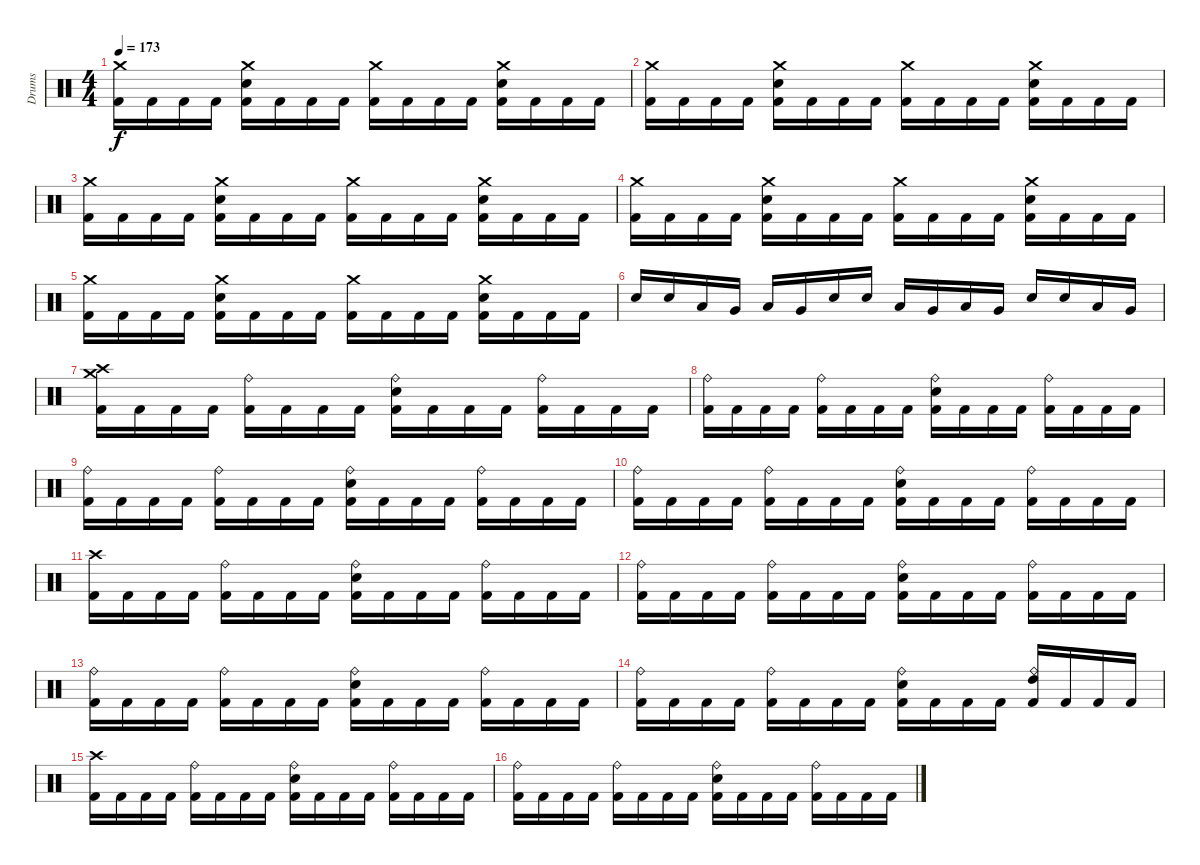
\track ("Drums" "Drums") {instrument percussion}
\staff {score}
\articulation defaults
\ts (4 4)
\tempo 173
\clef neutral
\ks c
("Crash medium (hit)" "Kick (hit) 2").16{dy f} "Kick (hit) 2".16 "Kick (hit) 2".16 "Kick (hit) 2".16 ("Crash medium (hit)" "Snare (hit) 2" "Kick (hit) 2").16 "Kick (hit) 2".16 "Kick (hit) 2".16 "Kick (hit) 2".16 ("Crash medium (hit)" "Kick (hit) 2").16 "Kick (hit) 2".16 "Kick (hit) 2".16 "Kick (hit) 2".16 ("Crash medium (hit)" "Snare (hit) 2" "Kick (hit) 2").16 "Kick (hit) 2".16 "Kick (hit) 2".16 "Kick (hit) 2".16 |
("Crash medium (hit)" "Kick (hit) 2").16 "Kick (hit) 2".16 "Kick (hit) 2".16 "Kick (hit) 2".16 ("Crash medium (hit)" "Snare (hit) 2" "Kick (hit) 2").16 "Kick (hit) 2".16 "Kick (hit) 2".16 "Kick (hit) 2".16 ("Crash medium (hit)" "Kick (hit) 2").16 "Kick (hit) 2".16 "Kick (hit) 2".16 "Kick (hit) 2".16 ("Crash medium (hit)" "Snare (hit) 2" "Kick (hit) 2").16 "Kick (hit) 2".16 "Kick (hit) 2".16 "Kick (hit) 2".16 |
("Crash medium (hit)" "Kick (hit) 2").16 "Kick (hit) 2".16 "Kick (hit) 2".16 "Kick (hit) 2".16 ("Crash medium (hit)" "Snare (hit) 2" "Kick (hit) 2").16 "Kick (hit) 2".16 "Kick (hit) 2".16 "Kick (hit) 2".16 ("Crash medium (hit)" "Kick (hit) 2").16 "Kick (hit) 2".16 "Kick (hit) 2".16 "Kick (hit) 2".16 ("Crash medium (hit)" "Snare (hit) 2" "Kick (hit) 2").16 "Kick (hit) 2".16 "Kick (hit) 2".16 "Kick (hit) 2".16 |
("Crash medium (hit)" "Kick (hit) 2").16 "Kick (hit) 2".16 "Kick (hit) 2".16 "Kick (hit) 2".16 ("Crash medium (hit)" "Snare (hit) 2" "Kick (hit) 2").16 "Kick (hit) 2".16 "Kick (hit) 2".16 "Kick (hit) 2".16 ("Crash medium (hit)" "Kick (hit) 2").16 "Kick (hit) 2".16 "Kick (hit) 2".16 "Kick (hit) 2".16 ("Crash medium (hit)" "Snare (hit) 2" "Kick (hit) 2").16 "Kick (hit) 2".16 "Kick (hit) 2".16 "Kick (hit) 2".16 |
("Crash medium (hit)" "Kick (hit) 2").16 "Kick (hit) 2".16 "Kick (hit) 2".16 "Kick (hit) 2".16 ("Crash medium (hit)" "Snare (hit) 2" "Kick (hit) 2").16 "Kick (hit) 2".16 "Kick (hit) 2".16 "Kick (hit) 2".16 ("Crash medium (hit)" "Kick (hit) 2").16 "Kick (hit) 2".16 "Kick (hit) 2".16 "Kick (hit) 2".16 ("Crash medium (hit)" "Snare (hit) 2" "Kick (hit) 2").16 "Kick (hit) 2".16 "Kick (hit) 2".16 "Kick (hit) 2".16 |
"Snare (hit) 2".16 "Snare (hit) 2".16 "Low Tom (hit)".16 "Very Low Tom (hit)".16 "Low Tom (hit)".16 "Very Low Tom (hit)".16 "Snare (hit) 2".16 "Snare (hit) 2".16 "Low Tom (hit)".16 "Very Low Tom (hit)".16 "Low Tom (hit)".16 "Very Low Tom (hit)".16 "Snare (hit) 2".16 "Snare (hit) 2".16 "Low Tom (hit)".16 "Very Low Tom (hit)".16 |
("Crash high (hit)" "Crash medium (hit)" "Kick (hit) 2").16 "Kick (hit) 2".16 "Kick (hit) 2".16 "Kick (hit) 2".16 ("Ride (bell)" "Kick (hit) 2").16 "Kick (hit) 2".16 "Kick (hit) 2".16 "Kick (hit) 2".16 ("Ride (bell)" "Snare (hit) 2" "Kick (hit) 2").16 "Kick (hit) 2".16 "Kick (hit) 2".16 "Kick (hit) 2".16 ("Ride (bell)" "Kick (hit) 2").16 "Kick (hit) 2".16 "Kick (hit) 2".16 "Kick (hit) 2".16 |
("Ride (bell)" "Kick (hit) 2").16 "Kick (hit) 2".16 "Kick (hit) 2".16 "Kick (hit) 2".16 ("Ride (bell)" "Kick (hit) 2").16 "Kick (hit) 2".16 "Kick (hit) 2".16 "Kick (hit) 2".16 ("Ride (bell)" "Snare (hit) 2" "Kick (hit) 2").16 "Kick (hit) 2".16 "Kick (hit) 2".16 "Kick (hit) 2".16 ("Ride (bell)" "Kick (hit) 2").16 "Kick (hit) 2".16 "Kick (hit) 2".16 "Kick (hit) 2".16 |
("Ride (bell)" "Kick (hit) 2").16 "Kick (hit) 2".16 "Kick (hit) 2".16 "Kick (hit) 2".16 ("Ride (bell)" "Kick (hit) 2").16 "Kick (hit) 2".16 "Kick (hit) 2".16 "Kick (hit) 2".16 ("Ride (bell)" "Snare (hit) 2" "Kick (hit) 2").16 "Kick (hit) 2".16 "Kick (hit) 2".16 "Kick (hit) 2".16 ("Ride (bell)" "Kick (hit) 2").16 "Kick (hit) 2".16 "Kick (hit) 2".16 "Kick (hit) 2".16 |
("Ride (bell)" "Kick (hit) 2").16 "Kick (hit) 2".16 "Kick (hit) 2".16 "Kick (hit) 2".16 ("Ride (bell)" "Kick (hit) 2").16 "Kick (hit) 2".16 "Kick (hit) 2".16 "Kick (hit) 2".16 ("Ride (bell)" "Snare (hit) 2" "Kick (hit) 2").16 "Kick (hit) 2".16 "Kick (hit) 2".16 "Kick (hit) 2".16 ("Ride (bell)" "Kick (hit) 2").16 "Kick (hit) 2".16 "Kick (hit) 2".16 "Kick (hit) 2".16 |
("Crash high (hit)" "Kick (hit) 2").16 "Kick (hit) 2".16 "Kick (hit) 2".16 "Kick (hit) 2".16 ("Ride (bell)" "Kick (hit) 2").16 "Kick (hit) 2".16 "Kick (hit) 2".16 "Kick (hit) 2".16 ("Ride (bell)" "Snare (hit) 2" "Kick (hit) 2").16 "Kick (hit) 2".16 "Kick (hit) 2".16 "Kick (hit) 2".16 ("Ride (bell)" "Kick (hit) 2").16 "Kick (hit) 2".16 "Kick (hit) 2".16 "Kick (hit) 2".16 |
("Ride (bell)" "Kick (hit) 2").16 "Kick (hit) 2".16 "Kick (hit) 2".16 "Kick (hit) 2".16 ("Ride (bell)" "Kick (hit) 2").16 "Kick (hit) 2".16 "Kick (hit) 2".16 "Kick (hit) 2".16 ("Ride (bell)" "Snare (hit) 2" "Kick (hit) 2").16 "Kick (hit) 2".16 "Kick (hit) 2".16 "Kick (hit) 2".16 ("Ride (bell)" "Kick (hit) 2").16 "Kick (hit) 2".16 "Kick (hit) 2".16 "Kick (hit) 2".16 |
("Ride (bell)" "Kick (hit) 2").16 "Kick (hit) 2".16 "Kick (hit) 2".16 "Kick (hit) 2".16 ("Ride (bell)" "Kick (hit) 2").16 "Kick (hit) 2".16 "Kick (hit) 2".16 "Kick (hit) 2".16 ("Ride (bell)" "Snare (hit) 2" "Kick (hit) 2").16 "Kick (hit) 2".16 "Kick (hit) 2".16 "Kick (hit) 2".16 ("Ride (bell)" "Kick (hit) 2").16 "Kick (hit) 2".16 "Kick (hit) 2".16 "Kick (hit) 2".16 |
("Ride (bell)" "Kick (hit) 2").16 "Kick (hit) 2".16 "Kick (hit) 2".16 "Kick (hit) 2".16 ("Ride (bell)" "Kick (hit) 2").16 "Kick (hit) 2".16 "Kick (hit) 2".16 "Kick (hit) 2".16 ("Ride (bell)" "Snare (hit) 2" "Kick (hit) 2").16 "Kick (hit) 2".16 "Kick (hit) 2".16 "Kick (hit) 2".16 ("Ride (bell)" "High Tom (hit)" "Kick (hit) 2").16 "Kick (hit) 2".16 "Kick (hit) 2".16 "Kick (hit) 2".16 |
("Crash high (hit)" "Kick (hit) 2").16 "Kick (hit) 2".16 "Kick (hit) 2".16 "Kick (hit) 2".16 ("Ride (bell)" "Kick (hit) 2").16 "Kick (hit) 2".16 "Kick (hit) 2".16 "Kick (hit) 2".16 ("Ride (bell)" "Snare (hit) 2" "Kick (hit) 2").16 "Kick (hit) 2".16 "Kick (hit) 2".16 "Kick (hit) 2".16 ("Ride (bell)" "Kick (hit) 2").16 "Kick (hit) 2".16 "Kick (hit) 2".16 "Kick (hit) 2".16 |
("Ride (bell)" "Kick (hit) 2").16 "Kick (hit) 2".16 "Kick (hit) 2".16 "Kick (hit) 2".16 ("Ride (bell)" "Kick (hit) 2").16 "Kick (hit) 2".16 "Kick (hit) 2".16 "Kick (hit) 2".16 ("Ride (bell)" "Snare (hit) 2" "Kick (hit) 2").16 "Kick (hit) 2".16 "Kick (hit) 2".16 "Kick (hit) 2".16 ("Ride (bell)" "Kick (hit) 2").16 "Kick (hit) 2".16 "Kick (hit) 2".16 "Kick (hit) 2".16
